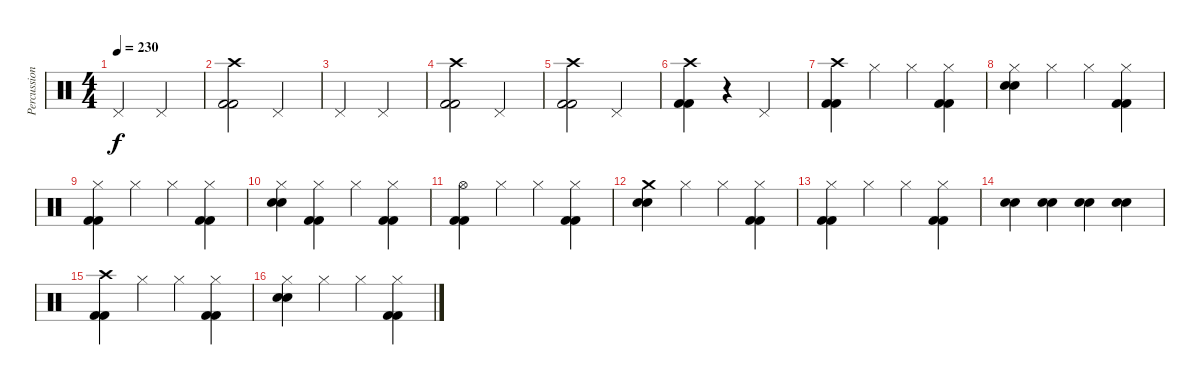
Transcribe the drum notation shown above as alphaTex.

\track ("Percussion" "Percussion") {instrument percussion}
\staff {score}
\articulation defaults
\ts (4 4)
\tempo 230
\clef neutral
\ks c "Pedal Hi-Hat (hit)".2{dy f} "Pedal Hi-Hat (hit)".2
|
("Crash high (hit)" "Kick (hit) 2" "Kick (hit) 2").2 "Pedal Hi-Hat (hit)".2 |
"Pedal Hi-Hat (hit)".2 "Pedal Hi-Hat (hit)".2 |
("Crash high (hit)" "Kick (hit) 2" "Kick (hit) 2").2 "Pedal Hi-Hat (hit)".2 |
("Crash high (hit)" "Kick (hit) 2" "Kick (hit) 2").2 "Pedal Hi-Hat (hit)".2 |
("Crash high (hit)" "Kick (hit) 2" "Kick (hit) 2").4 r.4 "Pedal Hi-Hat (hit)".2 |
("Crash high (hit)" "Kick (hit) 2" "Kick (hit) 2").4 "Hi-Hat (closed)".4 "Hi-Hat (closed)".4 ("Hi-Hat (closed)" "Kick (hit) 2" "Kick (hit) 2").4 |
("Hi-Hat (closed)" "Electric Snare (hit)" "Electric Snare (hit)").4 "Hi-Hat (closed)".4 "Hi-Hat (closed)".4 ("Hi-Hat (closed)" "Kick (hit) 2" "Kick (hit) 2").4 |
("Hi-Hat (closed)" "Kick (hit) 2" "Kick (hit) 2").4 "Hi-Hat (closed)".4 "Hi-Hat (closed)".4 ("Hi-Hat (closed)" "Kick (hit) 2" "Kick (hit) 2").4 |
("Hi-Hat (closed)" "Electric Snare (hit)" "Electric Snare (hit)").4 ("Hi-Hat (closed)" "Kick (hit) 2" "Kick (hit) 2").4 "Hi-Hat (closed)".4 ("Hi-Hat (closed)" "Kick (hit) 2" "Kick (hit) 2").4 |
("Hi-Hat (open)" "Kick (hit) 2" "Kick (hit) 2").4 "Hi-Hat (closed)".4 "Hi-Hat (closed)".4 ("Hi-Hat (closed)" "Kick (hit) 2" "Kick (hit) 2").4 |
("Crash medium (hit)" "Electric Snare (hit)" "Electric Snare (hit)").4 "Hi-Hat (closed)".4 "Hi-Hat (closed)".4 ("Hi-Hat (closed)" "Kick (hit) 2" "Kick (hit) 2").4 |
("Hi-Hat (closed)" "Kick (hit) 2" "Kick (hit) 2").4 "Hi-Hat (closed)".4 "Hi-Hat (closed)".4 ("Hi-Hat (closed)" "Kick (hit) 2" "Kick (hit) 2").4 |
("Electric Snare (hit)" "Electric Snare (hit)").4 ("Electric Snare (hit)" "Electric Snare (hit)").4 ("Electric Snare (hit)" "Electric Snare (hit)").4 ("Electric Snare (hit)" "Electric Snare (hit)").4 |
("Crash high (hit)" "Kick (hit) 2" "Kick (hit) 2").4 "Hi-Hat (closed)".4 "Hi-Hat (closed)".4 ("Hi-Hat (closed)" "Kick (hit) 2" "Kick (hit) 2").4 |
("Hi-Hat (closed)" "Electric Snare (hit)" "Electric Snare (hit)").4 "Hi-Hat (closed)".4 "Hi-Hat (closed)".4 ("Hi-Hat (closed)" "Kick (hit) 2" "Kick (hit) 2").4
